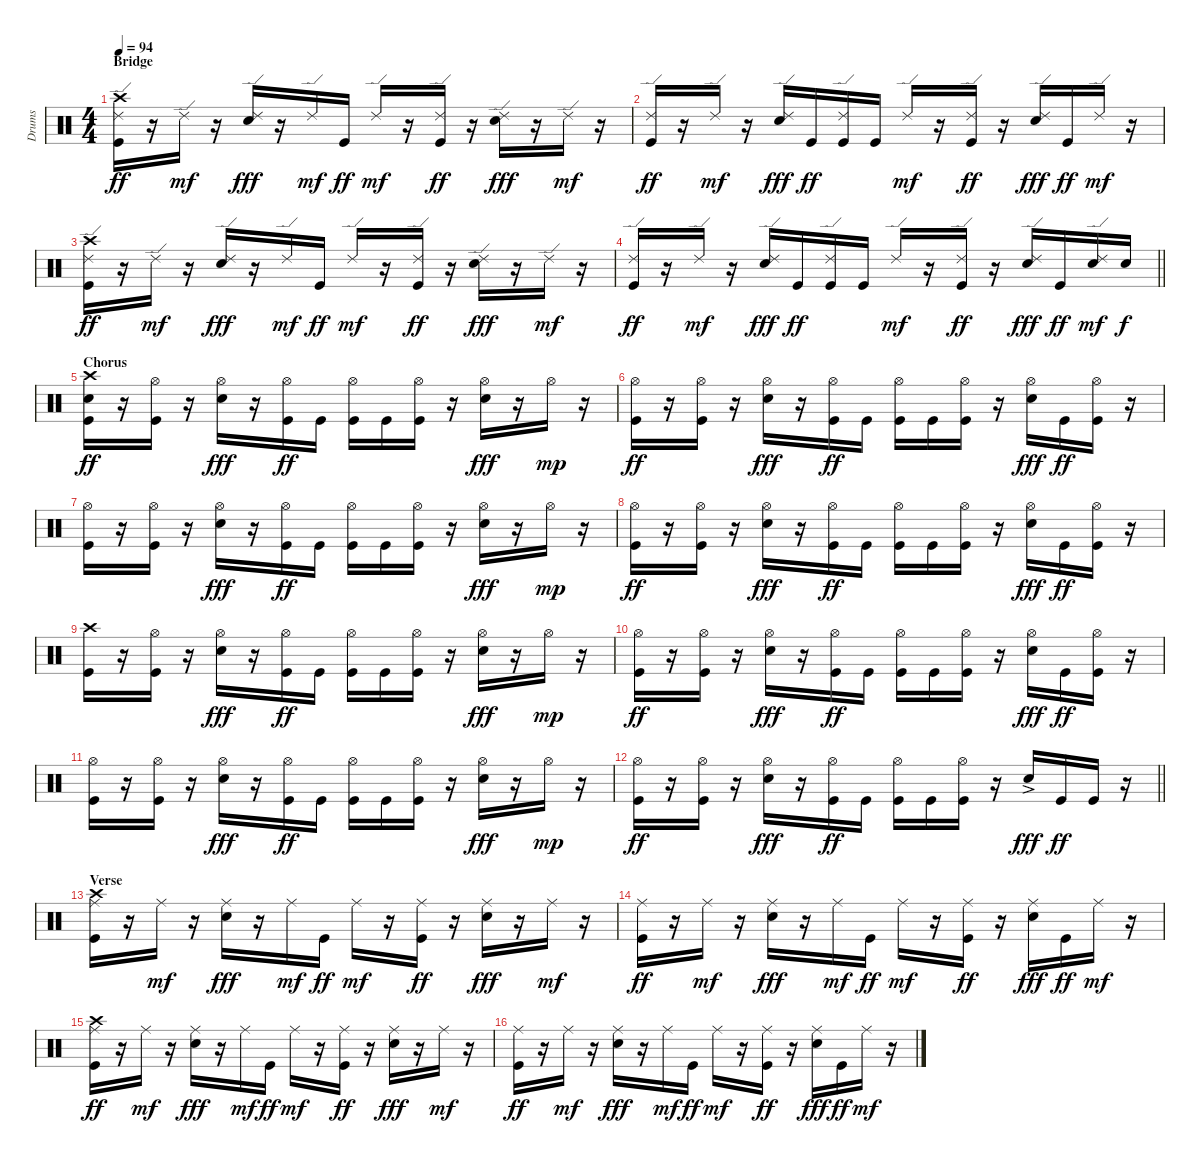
\track ("Drums" "Drums") {instrument percussion}
\staff {score}
\articulation defaults
\ts (4 4)
\section ("" "Bridge")
\tempo 94
\clef neutral
\ks c
("Crash high (hit)" "Ride (edge) 2" "Kick (hit)").16{dy ff} r.16 "Ride (edge) 2".16{dy mf} r.16 ("Ride (edge) 2" "Electric Snare (hit)").16{dy fff} r.16 "Ride (edge) 2".16{dy mf} "Kick (hit)".16{dy ff} "Ride (edge) 2".16{dy mf} r.16 ("Ride (edge) 2" "Kick (hit)").16{dy ff} r.16 ("Ride (edge) 2" "Electric Snare (hit)").16{dy fff} r.16 "Ride (edge) 2".16{dy mf} r.16 |
("Ride (edge) 2" "Kick (hit)").16{dy ff} r.16 "Ride (edge) 2".16{dy mf} r.16 ("Ride (edge) 2" "Electric Snare (hit)").16{dy fff} "Kick (hit)".16{dy ff} ("Ride (edge) 2" "Kick (hit)").16 "Kick (hit)".16 "Ride (edge) 2".16{dy mf} r.16 ("Ride (edge) 2" "Kick (hit)").16{dy ff} r.16 ("Ride (edge) 2" "Electric Snare (hit)").16{dy fff} "Kick (hit)".16{dy ff} "Ride (edge) 2".16{dy mf} r.16 |
("Crash high (hit)" "Ride (edge) 2" "Kick (hit)").16{dy ff} r.16 "Ride (edge) 2".16{dy mf} r.16 ("Ride (edge) 2" "Electric Snare (hit)").16{dy fff} r.16 "Ride (edge) 2".16{dy mf} "Kick (hit)".16{dy ff} "Ride (edge) 2".16{dy mf} r.16 ("Ride (edge) 2" "Kick (hit)").16{dy ff} r.16 ("Ride (edge) 2" "Electric Snare (hit)").16{dy fff} r.16 "Ride (edge) 2".16{dy mf} r.16 |
\barLineRight lightlight
("Ride (edge) 2" "Kick (hit)").16{dy ff} r.16 "Ride (edge) 2".16{dy mf} r.16 ("Ride (edge) 2" "Electric Snare (hit)").16{dy fff} "Kick (hit)".16{dy ff} ("Ride (edge) 2" "Kick (hit)").16 "Kick (hit)".16 "Ride (edge) 2".16{dy mf} r.16 ("Ride (edge) 2" "Kick (hit)").16{dy ff} r.16 ("Ride (edge) 2" "Electric Snare (hit)").16{dy fff} "Kick (hit)".16{dy ff} ("Ride (edge) 2" "Snare (hit) 2").16{dy mf} "Snare (hit) 2".16{dy f} |
\section ("" "Chorus")
("Crash high (hit)" "Snare (hit) 2" "Kick (hit)").16{dy ff} r.16 ("Hi-Hat (open)" "Kick (hit)").16 r.16 ("Hi-Hat (open)" "Electric Snare (hit)").16{dy fff} r.16 ("Hi-Hat (open)" "Kick (hit)").16{dy ff} "Kick (hit)".16 ("Hi-Hat (open)" "Kick (hit)").16 "Kick (hit)".16 ("Hi-Hat (open)" "Kick (hit)").16 r.16 ("Hi-Hat (open)" "Electric Snare (hit)").16{dy fff} r.16 "Hi-Hat (open)".16{dy mp} r.16 |
("Hi-Hat (open)" "Kick (hit)").16{dy ff} r.16 ("Hi-Hat (open)" "Kick (hit)").16 r.16 ("Hi-Hat (open)" "Electric Snare (hit)").16{dy fff} r.16 ("Hi-Hat (open)" "Kick (hit)").16{dy ff} "Kick (hit)".16 ("Hi-Hat (open)" "Kick (hit)").16 "Kick (hit)".16 ("Hi-Hat (open)" "Kick (hit)").16 r.16 ("Hi-Hat (open)" "Electric Snare (hit)").16{dy fff} "Kick (hit)".16{dy ff} ("Hi-Hat (open)" "Kick (hit)").16 r.16 |
("Hi-Hat (open)" "Kick (hit)").16 r.16 ("Hi-Hat (open)" "Kick (hit)").16 r.16 ("Hi-Hat (open)" "Electric Snare (hit)").16{dy fff} r.16 ("Hi-Hat (open)" "Kick (hit)").16{dy ff} "Kick (hit)".16 ("Hi-Hat (open)" "Kick (hit)").16 "Kick (hit)".16 ("Hi-Hat (open)" "Kick (hit)").16 r.16 ("Hi-Hat (open)" "Electric Snare (hit)").16{dy fff} r.16 "Hi-Hat (open)".16{dy mp} r.16 |
("Hi-Hat (open)" "Kick (hit)").16{dy ff} r.16 ("Hi-Hat (open)" "Kick (hit)").16 r.16 ("Hi-Hat (open)" "Electric Snare (hit)").16{dy fff} r.16 ("Hi-Hat (open)" "Kick (hit)").16{dy ff} "Kick (hit)".16 ("Hi-Hat (open)" "Kick (hit)").16 "Kick (hit)".16 ("Hi-Hat (open)" "Kick (hit)").16 r.16 ("Hi-Hat (open)" "Electric Snare (hit)").16{dy fff} "Kick (hit)".16{dy ff} ("Hi-Hat (open)" "Kick (hit)").16 r.16 |
("Crash high (hit)" "Kick (hit)").16 r.16 ("Hi-Hat (open)" "Kick (hit)").16 r.16 ("Hi-Hat (open)" "Electric Snare (hit)").16{dy fff} r.16 ("Hi-Hat (open)" "Kick (hit)").16{dy ff} "Kick (hit)".16 ("Hi-Hat (open)" "Kick (hit)").16 "Kick (hit)".16 ("Hi-Hat (open)" "Kick (hit)").16 r.16 ("Hi-Hat (open)" "Electric Snare (hit)").16{dy fff} r.16 "Hi-Hat (open)".16{dy mp} r.16 |
("Hi-Hat (open)" "Kick (hit)").16{dy ff} r.16 ("Hi-Hat (open)" "Kick (hit)").16 r.16 ("Hi-Hat (open)" "Electric Snare (hit)").16{dy fff} r.16 ("Hi-Hat (open)" "Kick (hit)").16{dy ff} "Kick (hit)".16 ("Hi-Hat (open)" "Kick (hit)").16 "Kick (hit)".16 ("Hi-Hat (open)" "Kick (hit)").16 r.16 ("Hi-Hat (open)" "Electric Snare (hit)").16{dy fff} "Kick (hit)".16{dy ff} ("Hi-Hat (open)" "Kick (hit)").16 r.16 |
("Hi-Hat (open)" "Kick (hit)").16 r.16 ("Hi-Hat (open)" "Kick (hit)").16 r.16 ("Hi-Hat (open)" "Electric Snare (hit)").16{dy fff} r.16 ("Hi-Hat (open)" "Kick (hit)").16{dy ff} "Kick (hit)".16 ("Hi-Hat (open)" "Kick (hit)").16 "Kick (hit)".16 ("Hi-Hat (open)" "Kick (hit)").16 r.16 ("Hi-Hat (open)" "Electric Snare (hit)").16{dy fff} r.16 "Hi-Hat (open)".16{dy mp} r.16 |
\barLineRight lightlight
("Hi-Hat (open)" "Kick (hit)").16{dy ff} r.16 ("Hi-Hat (open)" "Kick (hit)").16 r.16 ("Hi-Hat (open)" "Electric Snare (hit)").16{dy fff} r.16 ("Hi-Hat (open)" "Kick (hit)").16{dy ff} "Kick (hit)".16 ("Hi-Hat (open)" "Kick (hit)").16 "Kick (hit)".16 ("Hi-Hat (open)" "Kick (hit)").16 r.16 "Electric Snare (hit)"{ac}.16{dy fff} "Kick (hit)".16{dy ff} "Kick (hit)".16 r.16 |
\section ("" "Verse")
("Crash high (hit)" "Ride (middle)" "Kick (hit)").16 r.16 "Ride (middle)".16{dy mf} r.16 ("Ride (middle)" "Electric Snare (hit)").16{dy fff} r.16 "Ride (middle)".16{dy mf} "Kick (hit)".16{dy ff} "Ride (middle)".16{dy mf} r.16 ("Ride (middle)" "Kick (hit)").16{dy ff} r.16 ("Ride (middle)" "Electric Snare (hit)").16{dy fff} r.16 "Ride (middle)".16{dy mf} r.16 |
("Ride (middle)" "Kick (hit)").16{dy ff} r.16 "Ride (middle)".16{dy mf} r.16 ("Ride (middle)" "Electric Snare (hit)").16{dy fff} r.16 "Ride (middle)".16{dy mf} "Kick (hit)".16{dy ff} "Ride (middle)".16{dy mf} r.16 ("Ride (middle)" "Kick (hit)").16{dy ff} r.16 ("Ride (middle)" "Electric Snare (hit)").16{dy fff} "Kick (hit)".16{dy ff} "Ride (middle)".16{dy mf} r.16 |
("Crash high (hit)" "Ride (middle)" "Kick (hit)").16{dy ff} r.16 "Ride (middle)".16{dy mf} r.16 ("Ride (middle)" "Electric Snare (hit)").16{dy fff} r.16 "Ride (middle)".16{dy mf} "Kick (hit)".16{dy ff} "Ride (middle)".16{dy mf} r.16 ("Ride (middle)" "Kick (hit)").16{dy ff} r.16 ("Ride (middle)" "Electric Snare (hit)").16{dy fff} r.16 "Ride (middle)".16{dy mf} r.16 |
("Ride (middle)" "Kick (hit)").16{dy ff} r.16 "Ride (middle)".16{dy mf} r.16 ("Ride (middle)" "Electric Snare (hit)").16{dy fff} r.16 "Ride (middle)".16{dy mf} "Kick (hit)".16{dy ff} "Ride (middle)".16{dy mf} r.16 ("Ride (middle)" "Kick (hit)").16{dy ff} r.16 ("Ride (middle)" "Electric Snare (hit)").16{dy fff} "Kick (hit)".16{dy ff} "Ride (middle)".16{dy mf} r.16
